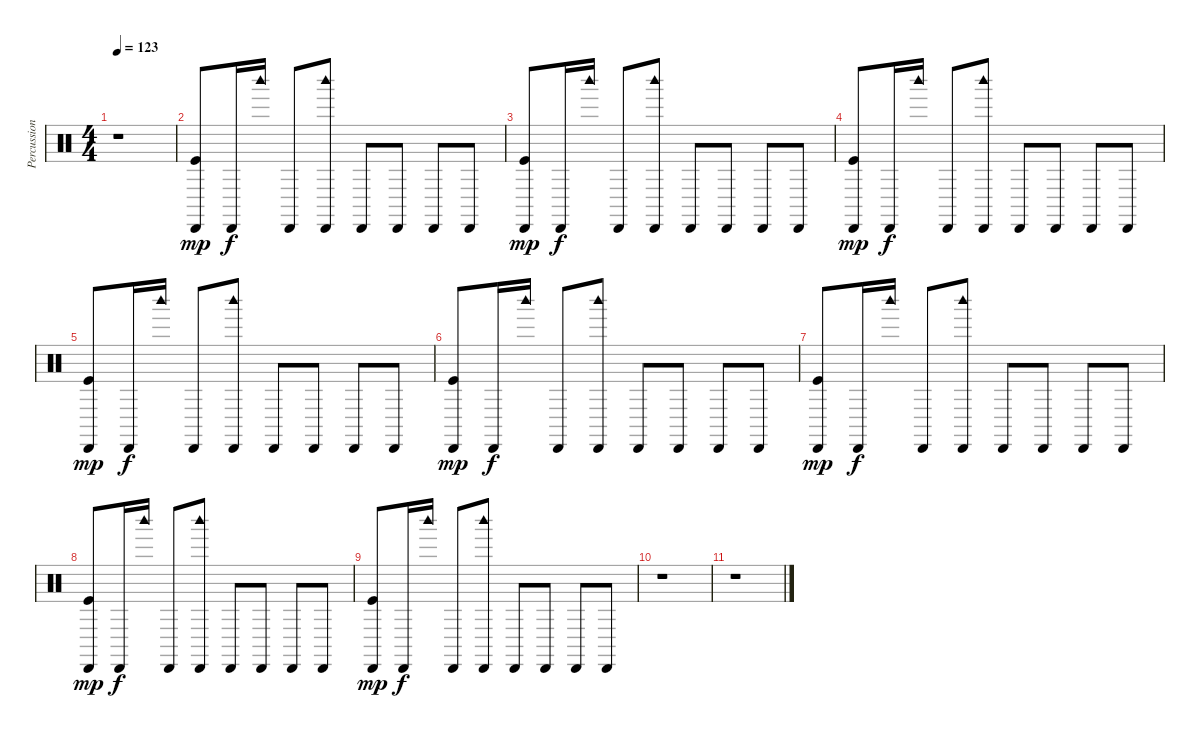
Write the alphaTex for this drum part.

\track ("Percussion" "Percussion") {instrument percussion}
\staff {score}
\articulation defaults
\ts (4 4)
\tempo 123
\clef neutral
\ks c
r.1{dy f} |
("Cabasa (hit)" "Kick (hit)").8{dy mp} "Cabasa (hit)".16{dy f} "Woodblock high (hit)".16 "Cabasa (hit)".8 ("Cabasa (hit)" "Woodblock high (hit)").8 "Cabasa (hit)".8 "Cabasa (hit)".8 "Cabasa (hit)".8 "Cabasa (hit)".8 |
("Cabasa (hit)" "Kick (hit)").8{dy mp} "Cabasa (hit)".16{dy f} "Woodblock high (hit)".16 "Cabasa (hit)".8 ("Cabasa (hit)" "Woodblock high (hit)").8 "Cabasa (hit)".8 "Cabasa (hit)".8 "Cabasa (hit)".8 "Cabasa (hit)".8 |
("Cabasa (hit)" "Kick (hit)").8{dy mp} "Cabasa (hit)".16{dy f} "Woodblock high (hit)".16 "Cabasa (hit)".8 ("Cabasa (hit)" "Woodblock high (hit)").8 "Cabasa (hit)".8 "Cabasa (hit)".8 "Cabasa (hit)".8 "Cabasa (hit)".8 |
("Cabasa (hit)" "Kick (hit)").8{dy mp} "Cabasa (hit)".16{dy f} "Woodblock high (hit)".16 "Cabasa (hit)".8 ("Cabasa (hit)" "Woodblock high (hit)").8 "Cabasa (hit)".8 "Cabasa (hit)".8 "Cabasa (hit)".8 "Cabasa (hit)".8 |
("Cabasa (hit)" "Kick (hit)").8{dy mp} "Cabasa (hit)".16{dy f} "Woodblock high (hit)".16 "Cabasa (hit)".8 ("Cabasa (hit)" "Woodblock high (hit)").8 "Cabasa (hit)".8 "Cabasa (hit)".8 "Cabasa (hit)".8 "Cabasa (hit)".8 |
("Cabasa (hit)" "Kick (hit)").8{dy mp} "Cabasa (hit)".16{dy f} "Woodblock high (hit)".16 "Cabasa (hit)".8 ("Cabasa (hit)" "Woodblock high (hit)").8 "Cabasa (hit)".8 "Cabasa (hit)".8 "Cabasa (hit)".8 "Cabasa (hit)".8 |
("Cabasa (hit)" "Kick (hit)").8{dy mp} "Cabasa (hit)".16{dy f} "Woodblock high (hit)".16 "Cabasa (hit)".8 ("Cabasa (hit)" "Woodblock high (hit)").8 "Cabasa (hit)".8 "Cabasa (hit)".8 "Cabasa (hit)".8 "Cabasa (hit)".8 |
("Cabasa (hit)" "Kick (hit)").8{dy mp} "Cabasa (hit)".16{dy f} "Woodblock high (hit)".16 "Cabasa (hit)".8 ("Cabasa (hit)" "Woodblock high (hit)").8 "Cabasa (hit)".8 "Cabasa (hit)".8 "Cabasa (hit)".8 "Cabasa (hit)".8 |
r.1 |
r.1
